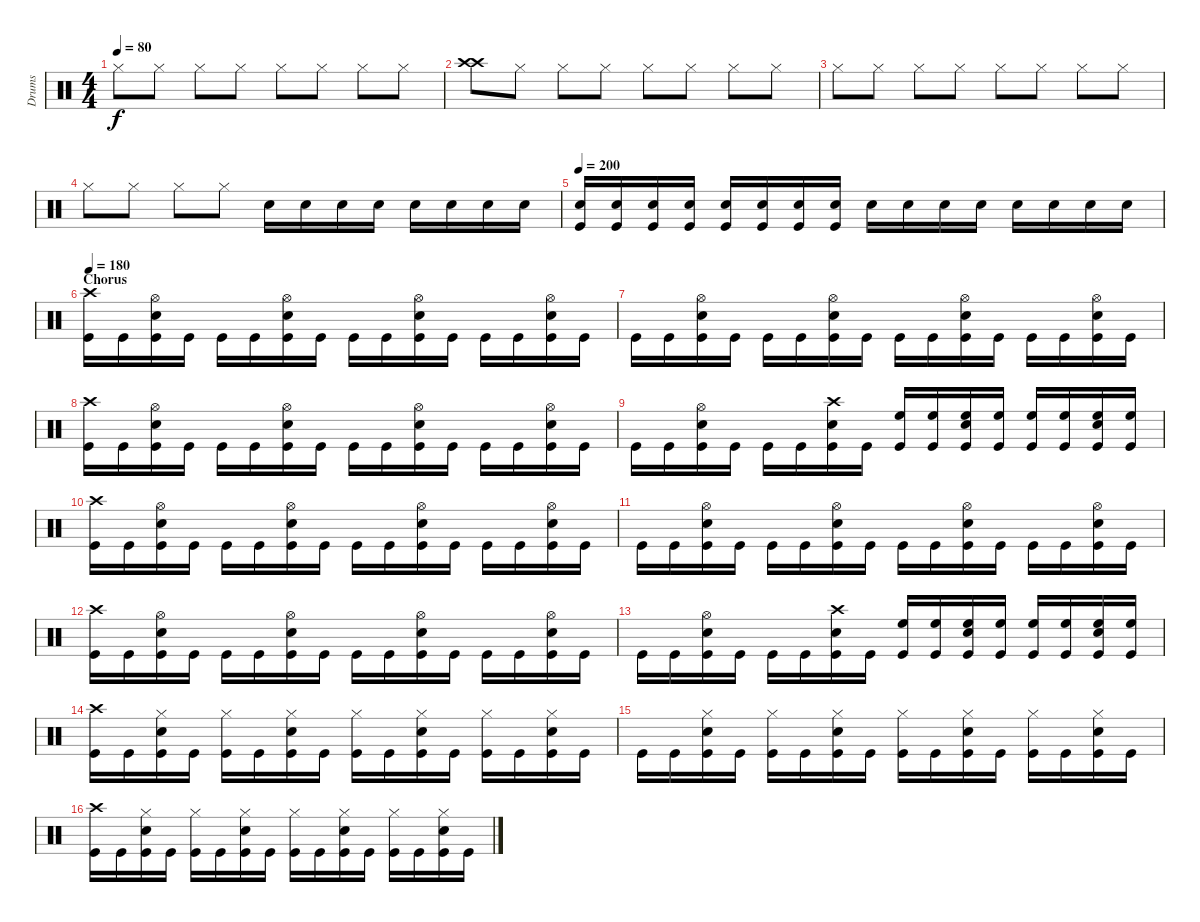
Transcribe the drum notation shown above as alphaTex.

\track ("Drums" "Drums") {instrument percussion}
\staff {score}
\articulation defaults
\ts (4 4)
\tempo 80
\clef neutral
\ks c "Hi-Hat (closed)".8{dy f} "Hi-Hat (closed)".8 "Hi-Hat (closed)".8 "Hi-Hat (closed)".8 "Hi-Hat (closed)".8 "Hi-Hat (closed)".8 "Hi-Hat (closed)".8 "Hi-Hat (closed)".8
|
("Crash high (hit)" "Crash high (hit)").8 "Hi-Hat (closed)".8 "Hi-Hat (closed)".8 "Hi-Hat (closed)".8 "Hi-Hat (closed)".8 "Hi-Hat (closed)".8 "Hi-Hat (closed)".8 "Hi-Hat (closed)".8 |
"Hi-Hat (closed)".8 "Hi-Hat (closed)".8 "Hi-Hat (closed)".8 "Hi-Hat (closed)".8 "Hi-Hat (closed)".8 "Hi-Hat (closed)".8 "Hi-Hat (closed)".8 "Hi-Hat (closed)".8 |
"Hi-Hat (closed)".8 "Hi-Hat (closed)".8 "Hi-Hat (closed)".8 "Hi-Hat (closed)".8 "Electric Snare (hit)".16 "Electric Snare (hit)".16 "Electric Snare (hit)".16 "Electric Snare (hit)".16 "Electric Snare (hit)".16 "Electric Snare (hit)".16 "Electric Snare (hit)".16 "Electric Snare (hit)".16 |
\tempo 200
("Electric Snare (hit)" "Kick (hit)").16 ("Electric Snare (hit)" "Kick (hit)").16 ("Electric Snare (hit)" "Kick (hit)").16 ("Electric Snare (hit)" "Kick (hit)").16 ("Electric Snare (hit)" "Kick (hit)").16 ("Electric Snare (hit)" "Kick (hit)").16 ("Electric Snare (hit)" "Kick (hit)").16 ("Electric Snare (hit)" "Kick (hit)").16 "Electric Snare (hit)".16 "Electric Snare (hit)".16 "Electric Snare (hit)".16 "Electric Snare (hit)".16 "Electric Snare (hit)".16 "Electric Snare (hit)".16 "Electric Snare (hit)".16 "Electric Snare (hit)".16 |
\section ("" "Chorus")
\tempo 180
("Crash high (hit)" "Kick (hit)").16 "Kick (hit)".16 ("Hi-Hat (open)" "Electric Snare (hit)" "Kick (hit)").16 "Kick (hit)".16 "Kick (hit)".16 "Kick (hit)".16 ("Hi-Hat (open)" "Electric Snare (hit)" "Kick (hit)").16 "Kick (hit)".16 "Kick (hit)".16 "Kick (hit)".16 ("Hi-Hat (open)" "Electric Snare (hit)" "Kick (hit)").16 "Kick (hit)".16 "Kick (hit)".16 "Kick (hit)".16 ("Hi-Hat (open)" "Electric Snare (hit)" "Kick (hit)").16 "Kick (hit)".16 |
"Kick (hit)".16 "Kick (hit)".16 ("Hi-Hat (open)" "Electric Snare (hit)" "Kick (hit)").16 "Kick (hit)".16 "Kick (hit)".16 "Kick (hit)".16 ("Hi-Hat (open)" "Electric Snare (hit)" "Kick (hit)").16 "Kick (hit)".16 "Kick (hit)".16 "Kick (hit)".16 ("Hi-Hat (open)" "Electric Snare (hit)" "Kick (hit)").16 "Kick (hit)".16 "Kick (hit)".16 "Kick (hit)".16 ("Hi-Hat (open)" "Electric Snare (hit)" "Kick (hit)").16 "Kick (hit)".16 |
("Crash high (hit)" "Kick (hit)").16 "Kick (hit)".16 ("Hi-Hat (open)" "Electric Snare (hit)" "Kick (hit)").16 "Kick (hit)".16 "Kick (hit)".16 "Kick (hit)".16 ("Hi-Hat (open)" "Electric Snare (hit)" "Kick (hit)").16 "Kick (hit)".16 "Kick (hit)".16 "Kick (hit)".16 ("Hi-Hat (open)" "Electric Snare (hit)" "Kick (hit)").16 "Kick (hit)".16 "Kick (hit)".16 "Kick (hit)".16 ("Hi-Hat (open)" "Electric Snare (hit)" "Kick (hit)").16 "Kick (hit)".16 |
"Kick (hit)".16 "Kick (hit)".16 ("Hi-Hat (open)" "Electric Snare (hit)" "Kick (hit)").16 "Kick (hit)".16 "Kick (hit)".16 "Kick (hit)".16 ("Crash high (hit)" "Electric Snare (hit)" "Kick (hit)").16 "Kick (hit)".16 ("High Floor Tom (hit)" "Kick (hit)").16 ("High Floor Tom (hit)" "Kick (hit)").16 ("High Floor Tom (hit)" "Electric Snare (hit)" "Kick (hit)").16 ("High Floor Tom (hit)" "Kick (hit)").16 ("High Floor Tom (hit)" "Kick (hit)").16 ("High Floor Tom (hit)" "Kick (hit)").16 ("High Floor Tom (hit)" "Electric Snare (hit)" "Kick (hit)").16 ("High Floor Tom (hit)" "Kick (hit)").16 |
("Crash high (hit)" "Kick (hit)").16 "Kick (hit)".16 ("Hi-Hat (open)" "Electric Snare (hit)" "Kick (hit)").16 "Kick (hit)".16 "Kick (hit)".16 "Kick (hit)".16 ("Hi-Hat (open)" "Electric Snare (hit)" "Kick (hit)").16 "Kick (hit)".16 "Kick (hit)".16 "Kick (hit)".16 ("Hi-Hat (open)" "Electric Snare (hit)" "Kick (hit)").16 "Kick (hit)".16 "Kick (hit)".16 "Kick (hit)".16 ("Hi-Hat (open)" "Electric Snare (hit)" "Kick (hit)").16 "Kick (hit)".16 |
"Kick (hit)".16 "Kick (hit)".16 ("Hi-Hat (open)" "Electric Snare (hit)" "Kick (hit)").16 "Kick (hit)".16 "Kick (hit)".16 "Kick (hit)".16 ("Hi-Hat (open)" "Electric Snare (hit)" "Kick (hit)").16 "Kick (hit)".16 "Kick (hit)".16 "Kick (hit)".16 ("Hi-Hat (open)" "Electric Snare (hit)" "Kick (hit)").16 "Kick (hit)".16 "Kick (hit)".16 "Kick (hit)".16 ("Hi-Hat (open)" "Electric Snare (hit)" "Kick (hit)").16 "Kick (hit)".16 |
("Crash high (hit)" "Kick (hit)").16 "Kick (hit)".16 ("Hi-Hat (open)" "Electric Snare (hit)" "Kick (hit)").16 "Kick (hit)".16 "Kick (hit)".16 "Kick (hit)".16 ("Hi-Hat (open)" "Electric Snare (hit)" "Kick (hit)").16 "Kick (hit)".16 "Kick (hit)".16 "Kick (hit)".16 ("Hi-Hat (open)" "Electric Snare (hit)" "Kick (hit)").16 "Kick (hit)".16 "Kick (hit)".16 "Kick (hit)".16 ("Hi-Hat (open)" "Electric Snare (hit)" "Kick (hit)").16 "Kick (hit)".16 |
"Kick (hit)".16 "Kick (hit)".16 ("Hi-Hat (open)" "Electric Snare (hit)" "Kick (hit)").16 "Kick (hit)".16 "Kick (hit)".16 "Kick (hit)".16 ("Crash high (hit)" "Electric Snare (hit)" "Kick (hit)").16 "Kick (hit)".16 ("High Floor Tom (hit)" "Kick (hit)").16 ("High Floor Tom (hit)" "Kick (hit)").16 ("High Floor Tom (hit)" "Electric Snare (hit)" "Kick (hit)").16 ("High Floor Tom (hit)" "Kick (hit)").16 ("High Floor Tom (hit)" "Kick (hit)").16 ("High Floor Tom (hit)" "Kick (hit)").16 ("High Floor Tom (hit)" "Electric Snare (hit)" "Kick (hit)").16 ("High Floor Tom (hit)" "Kick (hit)").16 |
("Crash high (hit)" "Kick (hit)").16 "Kick (hit)".16 ("Hi-Hat (closed)" "Electric Snare (hit)" "Kick (hit)").16 "Kick (hit)".16 ("Hi-Hat (closed)" "Kick (hit)").16 "Kick (hit)".16 ("Hi-Hat (closed)" "Electric Snare (hit)" "Kick (hit)").16 "Kick (hit)".16 ("Hi-Hat (closed)" "Kick (hit)").16 "Kick (hit)".16 ("Hi-Hat (closed)" "Electric Snare (hit)" "Kick (hit)").16 "Kick (hit)".16 ("Hi-Hat (closed)" "Kick (hit)").16 "Kick (hit)".16 ("Hi-Hat (closed)" "Electric Snare (hit)" "Kick (hit)").16 "Kick (hit)".16 |
"Kick (hit)".16 "Kick (hit)".16 ("Hi-Hat (closed)" "Electric Snare (hit)" "Kick (hit)").16 "Kick (hit)".16 ("Hi-Hat (closed)" "Kick (hit)").16 "Kick (hit)".16 ("Hi-Hat (closed)" "Electric Snare (hit)" "Kick (hit)").16 "Kick (hit)".16 ("Hi-Hat (closed)" "Kick (hit)").16 "Kick (hit)".16 ("Hi-Hat (closed)" "Electric Snare (hit)" "Kick (hit)").16 "Kick (hit)".16 ("Hi-Hat (closed)" "Kick (hit)").16 "Kick (hit)".16 ("Hi-Hat (closed)" "Electric Snare (hit)" "Kick (hit)").16 "Kick (hit)".16 |
("Crash high (hit)" "Kick (hit)").16 "Kick (hit)".16 ("Hi-Hat (closed)" "Electric Snare (hit)" "Kick (hit)").16 "Kick (hit)".16 ("Hi-Hat (closed)" "Kick (hit)").16 "Kick (hit)".16 ("Hi-Hat (closed)" "Electric Snare (hit)" "Kick (hit)").16 "Kick (hit)".16 ("Hi-Hat (closed)" "Kick (hit)").16 "Kick (hit)".16 ("Hi-Hat (closed)" "Electric Snare (hit)" "Kick (hit)").16 "Kick (hit)".16 ("Hi-Hat (closed)" "Kick (hit)").16 "Kick (hit)".16 ("Hi-Hat (closed)" "Electric Snare (hit)" "Kick (hit)").16 "Kick (hit)".16
